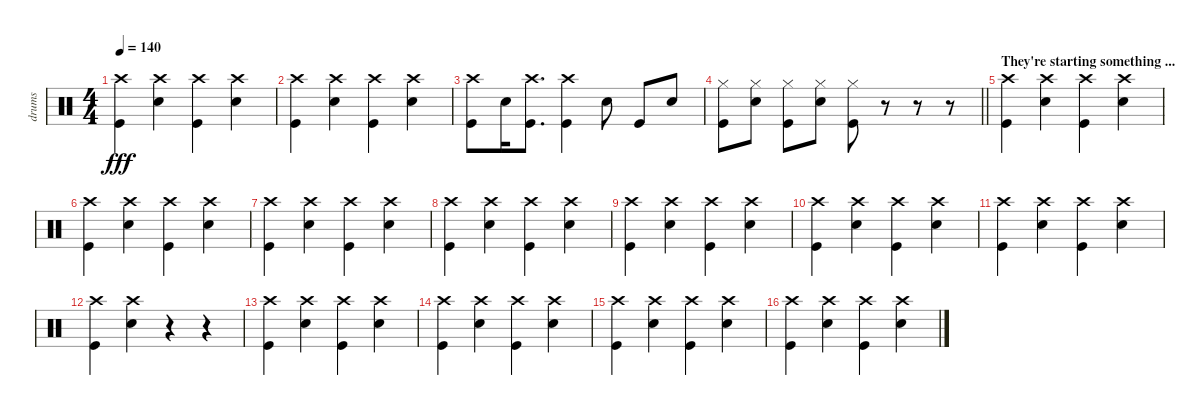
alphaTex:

\track ("drums" "drums") {instrument percussion}
\staff {score}
\articulation defaults
\ts (4 4)
\tempo 140
\clef neutral
\ks c
("Crash high (hit)" "Kick (hit)").4{dy fff} ("Crash high (hit)" "Snare (hit) 2").4 ("Crash high (hit)" "Kick (hit)").4 ("Crash high (hit)" "Snare (hit) 2").4 |
("Crash high (hit)" "Kick (hit)").4 ("Crash high (hit)" "Snare (hit) 2").4 ("Crash high (hit)" "Kick (hit)").4 ("Crash high (hit)" "Snare (hit) 2").4 |
("Crash high (hit)" "Kick (hit)").8 "Snare (hit) 2".16 ("Crash high (hit)" "Kick (hit)").8{d} ("Crash high (hit)" "Kick (hit)").4 "Snare (hit) 2".8 "Kick (hit)".8 "Snare (hit) 2".8 |
\barLineRight lightlight
("Hi-Hat (closed)" "Kick (hit)").8 ("Hi-Hat (closed)" "Snare (hit) 2").8 ("Hi-Hat (closed)" "Kick (hit)").8 ("Hi-Hat (closed)" "Snare (hit) 2").8 ("Hi-Hat (closed)" "Kick (hit)").8 r.8 r.8 r.8 |
\section ("" "They're starting something ...")
("Crash high (hit)" "Kick (hit)").4 ("Crash high (hit)" "Snare (hit) 2").4 ("Crash high (hit)" "Kick (hit)").4 ("Crash high (hit)" "Snare (hit) 2").4 |
("Crash high (hit)" "Kick (hit)").4 ("Crash high (hit)" "Snare (hit) 2").4 ("Crash high (hit)" "Kick (hit)").4 ("Crash high (hit)" "Snare (hit) 2").4 |
("Crash high (hit)" "Kick (hit)").4 ("Crash high (hit)" "Snare (hit) 2").4 ("Crash high (hit)" "Kick (hit)").4 ("Crash high (hit)" "Snare (hit) 2").4 |
("Crash high (hit)" "Kick (hit)").4 ("Crash high (hit)" "Snare (hit) 2").4 ("Crash high (hit)" "Kick (hit)").4 ("Crash high (hit)" "Snare (hit) 2").4 |
("Crash high (hit)" "Kick (hit)").4 ("Crash high (hit)" "Snare (hit) 2").4 ("Crash high (hit)" "Kick (hit)").4 ("Crash high (hit)" "Snare (hit) 2").4 |
("Crash high (hit)" "Kick (hit)").4 ("Crash high (hit)" "Snare (hit) 2").4 ("Crash high (hit)" "Kick (hit)").4 ("Crash high (hit)" "Snare (hit) 2").4 |
("Crash high (hit)" "Kick (hit)").4 ("Crash high (hit)" "Snare (hit) 2").4 ("Crash high (hit)" "Kick (hit)").4 ("Crash high (hit)" "Snare (hit) 2").4 |
("Crash high (hit)" "Kick (hit)").4 ("Crash high (hit)" "Snare (hit) 2").4 r.4 r.4 |
("Crash high (hit)" "Kick (hit)").4 ("Crash high (hit)" "Snare (hit) 2").4 ("Crash high (hit)" "Kick (hit)").4 ("Crash high (hit)" "Snare (hit) 2").4 |
("Crash high (hit)" "Kick (hit)").4 ("Crash high (hit)" "Snare (hit) 2").4 ("Crash high (hit)" "Kick (hit)").4 ("Crash high (hit)" "Snare (hit) 2").4 |
("Crash high (hit)" "Kick (hit)").4 ("Crash high (hit)" "Snare (hit) 2").4 ("Crash high (hit)" "Kick (hit)").4 ("Crash high (hit)" "Snare (hit) 2").4 |
("Crash high (hit)" "Kick (hit)").4 ("Crash high (hit)" "Snare (hit) 2").4 ("Crash high (hit)" "Kick (hit)").4 ("Crash high (hit)" "Snare (hit) 2").4
